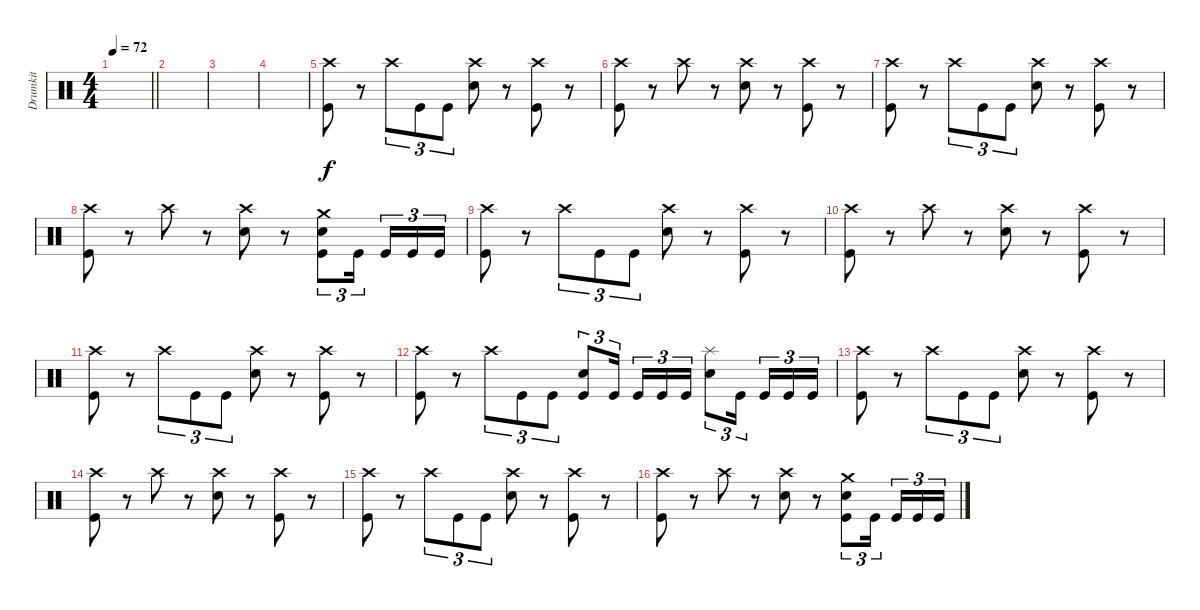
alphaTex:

\track ("Drumkit" "Drumkit") {instrument percussion}
\staff {score}
\articulation defaults
\ts (4 4)
\tempo 72
\clef neutral
\barLineRight lightlight
\ks c
|
|
|
|
("Kick (hit)" "Crash high (hit)").8 r.8 "Crash high (hit)".8{tu (3 2)} "Kick (hit)".8{tu (3 2)} "Kick (hit)".8{tu (3 2)} ("Snare (hit) 2" "Crash high (hit)").8 r.8 ("Kick (hit)" "Crash high (hit)").8 r.8 |
("Kick (hit)" "Crash high (hit)").8 r.8 "Crash high (hit)".8 r.8 ("Snare (hit) 2" "Crash high (hit)").8 r.8 ("Kick (hit)" "Crash high (hit)").8 r.8 |
("Kick (hit)" "Crash high (hit)").8 r.8 "Crash high (hit)".8{tu (3 2)} "Kick (hit)".8{tu (3 2)} "Kick (hit)".8{tu (3 2)} ("Snare (hit) 2" "Crash high (hit)").8 r.8 ("Kick (hit)" "Crash high (hit)").8 r.8 |
("Kick (hit)" "Crash high (hit)").8 r.8 "Crash high (hit)".8 r.8 ("Snare (hit) 2" "Crash high (hit)").8 r.8 ("Kick (hit)" "Snare (hit) 2" "Crash medium (hit)").8{tu (3 2)} "Kick (hit)".16{tu (3 2) beam splitsecondary} "Kick (hit)".16{tu (3 2)} "Kick (hit)".16{tu (3 2)} "Kick (hit)".16{tu (3 2)} |
("Kick (hit)" "Crash high (hit)").8 r.8 "Crash high (hit)".8{tu (3 2)} "Kick (hit)".8{tu (3 2)} "Kick (hit)".8{tu (3 2)} ("Snare (hit) 2" "Crash high (hit)").8 r.8 ("Kick (hit)" "Crash high (hit)").8 r.8 |
("Kick (hit)" "Crash high (hit)").8 r.8 "Crash high (hit)".8 r.8 ("Snare (hit) 2" "Crash high (hit)").8 r.8 ("Kick (hit)" "Crash high (hit)").8 r.8 |
("Kick (hit)" "Crash high (hit)").8 r.8 "Crash high (hit)".8{tu (3 2)} "Kick (hit)".8{tu (3 2)} "Kick (hit)".8{tu (3 2)} ("Snare (hit) 2" "Crash high (hit)").8 r.8 ("Kick (hit)" "Crash high (hit)").8 r.8 |
("Kick (hit)" "Crash high (hit)").8 r.8 "Crash high (hit)".8{tu (3 2)} "Kick (hit)".8{tu (3 2)} "Kick (hit)".8{tu (3 2)} ("Kick (hit)" "Snare (hit) 2").8{tu (3 2)} "Kick (hit)".16{tu (3 2) beam splitsecondary} "Kick (hit)".16{tu (3 2)} "Kick (hit)".16{tu (3 2)} "Kick (hit)".16{tu (3 2)} ("Snare (hit) 2" "Splash (hit)").8{tu (3 2)} "Kick (hit)".16{tu (3 2) beam splitsecondary} "Kick (hit)".16{tu (3 2)} "Kick (hit)".16{tu (3 2)} "Kick (hit)".16{tu (3 2)} |
("Kick (hit)" "Crash high (hit)").8 r.8 "Crash high (hit)".8{tu (3 2)} "Kick (hit)".8{tu (3 2)} "Kick (hit)".8{tu (3 2)} ("Snare (hit) 2" "Crash high (hit)").8 r.8 ("Kick (hit)" "Crash high (hit)").8 r.8 |
("Kick (hit)" "Crash high (hit)").8 r.8 "Crash high (hit)".8 r.8 ("Snare (hit) 2" "Crash high (hit)").8 r.8 ("Kick (hit)" "Crash high (hit)").8 r.8 |
("Kick (hit)" "Crash high (hit)").8 r.8 "Crash high (hit)".8{tu (3 2)} "Kick (hit)".8{tu (3 2)} "Kick (hit)".8{tu (3 2)} ("Snare (hit) 2" "Crash high (hit)").8 r.8 ("Kick (hit)" "Crash high (hit)").8 r.8 |
("Kick (hit)" "Crash high (hit)").8 r.8 "Crash high (hit)".8 r.8 ("Snare (hit) 2" "Crash high (hit)").8 r.8 ("Kick (hit)" "Snare (hit) 2" "Crash medium (hit)").8{tu (3 2)} "Kick (hit)".16{tu (3 2) beam splitsecondary} "Kick (hit)".16{tu (3 2)} "Kick (hit)".16{tu (3 2)} "Kick (hit)".16{tu (3 2)}
